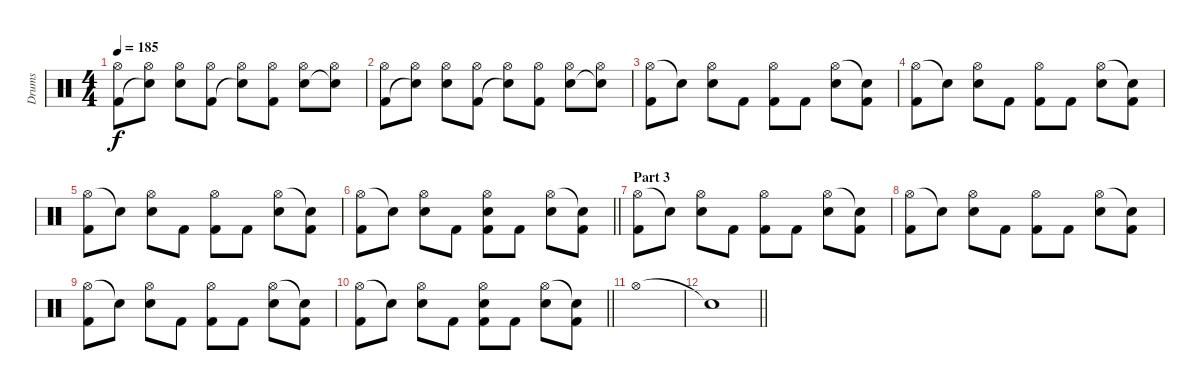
\track ("Drums" "Drums") {instrument percussion}
\staff {score}
\articulation defaults
\ts (4 4)
\tempo 185
\clef neutral
\ks c
("Hi-Hat (open)" "Kick (hit) 2").8{dy f} ("Hi-Hat (open)" "Snare (hit)"{t}).8 ("Hi-Hat (open)" "Electric Snare (hit)").8 ("Hi-Hat (open)" "Kick (hit) 2").8 ("Hi-Hat (open)" "Snare (hit)"{t}).8 ("Hi-Hat (open)" "Kick (hit) 2").8 ("Hi-Hat (open)" "Electric Snare (hit)").8 ("Hi-Hat (open)" "Snare (hit)"{t}).8 |
("Hi-Hat (open)" "Kick (hit) 2").8 ("Hi-Hat (open)" "Snare (hit)"{t}).8 ("Hi-Hat (open)" "Electric Snare (hit)").8 ("Hi-Hat (open)" "Kick (hit) 2").8 ("Hi-Hat (open)" "Snare (hit)"{t}).8 ("Hi-Hat (open)" "Kick (hit) 2").8 ("Hi-Hat (open)" "Electric Snare (hit)").8 ("Hi-Hat (open)" "Snare (hit)"{t}).8 |
("Hi-Hat (open)" "Kick (hit) 2").8 "Snare (hit)"{t}.8 ("Hi-Hat (open)" "Electric Snare (hit)").8 "Kick (hit) 2".8 ("Hi-Hat (open)" "Kick (hit) 2").8 "Kick (hit) 2".8 ("Hi-Hat (open)" "Electric Snare (hit)").8 ("Snare (hit)"{t} "Kick (hit) 2").8 |
("Hi-Hat (open)" "Kick (hit) 2").8 "Snare (hit)"{t}.8 ("Hi-Hat (open)" "Electric Snare (hit)").8 "Kick (hit) 2".8 ("Hi-Hat (open)" "Kick (hit) 2").8 "Kick (hit) 2".8 ("Hi-Hat (open)" "Electric Snare (hit)").8 ("Snare (hit)"{t} "Kick (hit) 2").8 |
("Hi-Hat (open)" "Kick (hit) 2").8 "Snare (hit)"{t}.8 ("Hi-Hat (open)" "Electric Snare (hit)").8 "Kick (hit) 2".8 ("Hi-Hat (open)" "Kick (hit) 2").8 "Kick (hit) 2".8 ("Hi-Hat (open)" "Electric Snare (hit)").8 ("Snare (hit)"{t} "Kick (hit) 2").8 |
\barLineRight lightlight
("Hi-Hat (open)" "Kick (hit) 2").8 "Snare (hit)"{t}.8 ("Hi-Hat (open)" "Electric Snare (hit)").8 "Kick (hit) 2".8 ("Hi-Hat (open)" "Electric Snare (hit)" "Kick (hit) 2").8 "Kick (hit) 2".8 ("Hi-Hat (open)" "Electric Snare (hit)").8 ("Snare (hit)"{t} "Kick (hit) 2").8 |
\section ("" "Part 3")
("Hi-Hat (open)" "Kick (hit) 2").8 "Snare (hit)"{t}.8 ("Hi-Hat (open)" "Electric Snare (hit)").8 "Kick (hit) 2".8 ("Hi-Hat (open)" "Kick (hit) 2").8 "Kick (hit) 2".8 ("Hi-Hat (open)" "Electric Snare (hit)").8 ("Snare (hit)"{t} "Kick (hit) 2").8 |
("Hi-Hat (open)" "Kick (hit) 2").8 "Snare (hit)"{t}.8 ("Hi-Hat (open)" "Electric Snare (hit)").8 "Kick (hit) 2".8 ("Hi-Hat (open)" "Kick (hit) 2").8 "Kick (hit) 2".8 ("Hi-Hat (open)" "Electric Snare (hit)").8 ("Snare (hit)"{t} "Kick (hit) 2").8 |
("Hi-Hat (open)" "Kick (hit) 2").8 "Snare (hit)"{t}.8 ("Hi-Hat (open)" "Electric Snare (hit)").8 "Kick (hit) 2".8 ("Hi-Hat (open)" "Kick (hit) 2").8 "Kick (hit) 2".8 ("Hi-Hat (open)" "Electric Snare (hit)").8 ("Snare (hit)"{t} "Kick (hit) 2").8 |
\barLineRight lightlight
("Hi-Hat (open)" "Kick (hit) 2").8 "Snare (hit)"{t}.8 ("Hi-Hat (open)" "Electric Snare (hit)").8 "Kick (hit) 2".8 ("Hi-Hat (open)" "Electric Snare (hit)" "Kick (hit) 2").8 "Kick (hit) 2".8 ("Hi-Hat (open)" "Electric Snare (hit)").8 ("Snare (hit)"{t} "Kick (hit) 2").8 |
"Hi-Hat (open)".1 |
\barLineRight lightlight "Snare (hit)"{t}.1
